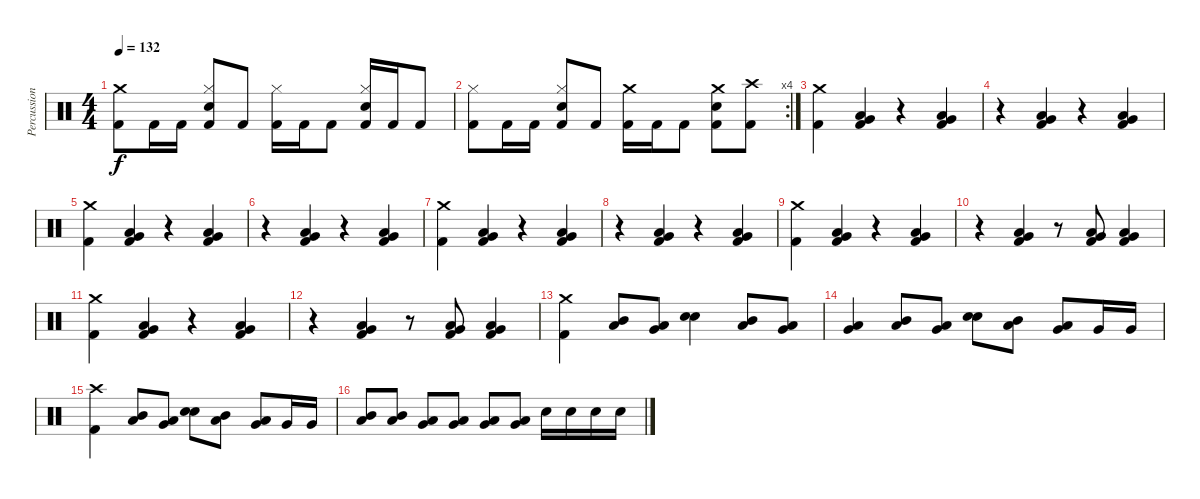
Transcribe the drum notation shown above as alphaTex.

\track ("Percussion" "Percussion") {instrument percussion}
\staff {score}
\articulation defaults
\ts (4 4)
\tempo 132
\clef neutral
\ks c
("Kick (hit) 2" "Crash medium (hit)").8{dy f} "Kick (hit) 2".16 "Kick (hit) 2".16 ("Hi-Hat (closed)" "Kick (hit) 2" "Snare (hit) 2").8 "Kick (hit) 2".8 ("Kick (hit) 2" "Hi-Hat (closed)").16 "Kick (hit) 2".16 "Kick (hit) 2".8 ("Kick (hit) 2" "Hi-Hat (closed)" "Snare (hit) 2").16 "Kick (hit) 2".16 "Kick (hit) 2".8 |
\rc 4
("Kick (hit) 2" "Hi-Hat (closed)").8 "Kick (hit) 2".16 "Kick (hit) 2".16 ("Hi-Hat (closed)" "Kick (hit) 2" "Snare (hit) 2").8 "Kick (hit) 2".8 ("Kick (hit) 2" "Crash medium (hit)").16 "Kick (hit) 2".16 "Kick (hit) 2".8 ("Kick (hit) 2" "Crash medium (hit)" "Snare (hit) 2").8 ("Crash high (hit)" "Kick (hit) 2").8 |
("Kick (hit) 2" "Crash medium (hit)").4 ("Kick (hit) 2" "Low Tom (hit)" "Very Low Tom (hit)").4 r.4 ("Kick (hit) 2" "Low Tom (hit)" "Very Low Tom (hit)").4 |
r.4 ("Kick (hit) 2" "Low Tom (hit)" "Very Low Tom (hit)").4 r.4 ("Kick (hit) 2" "Low Tom (hit)" "Very Low Tom (hit)").4 |
("Kick (hit) 2" "Crash medium (hit)").4 ("Kick (hit) 2" "Low Tom (hit)" "Very Low Tom (hit)").4 r.4 ("Kick (hit) 2" "Low Tom (hit)" "Very Low Tom (hit)").4 |
r.4 ("Kick (hit) 2" "Low Tom (hit)" "Very Low Tom (hit)").4 r.4 ("Kick (hit) 2" "Low Tom (hit)" "Very Low Tom (hit)").4 |
("Kick (hit) 2" "Crash medium (hit)").4 ("Kick (hit) 2" "Low Tom (hit)" "Very Low Tom (hit)").4 r.4 ("Kick (hit) 2" "Low Tom (hit)" "Very Low Tom (hit)").4 |
r.4 ("Kick (hit) 2" "Low Tom (hit)" "Very Low Tom (hit)").4 r.4 ("Kick (hit) 2" "Low Tom (hit)" "Very Low Tom (hit)").4 |
("Kick (hit) 2" "Crash medium (hit)").4 ("Kick (hit) 2" "Low Tom (hit)" "Very Low Tom (hit)").4 r.4 ("Kick (hit) 2" "Low Tom (hit)" "Very Low Tom (hit)").4 |
r.4 ("Kick (hit) 2" "Low Tom (hit)" "Very Low Tom (hit)").4 r.8 ("Kick (hit) 2" "Low Tom (hit)" "Very Low Tom (hit)").8 ("Kick (hit) 2" "Low Tom (hit)" "Very Low Tom (hit)").4 |
("Kick (hit) 2" "Crash medium (hit)").4 ("Kick (hit) 2" "Low Tom (hit)" "Very Low Tom (hit)").4 r.4 ("Kick (hit) 2" "Low Tom (hit)" "Very Low Tom (hit)").4 |
r.4 ("Kick (hit) 2" "Low Tom (hit)" "Very Low Tom (hit)").4 r.8 ("Kick (hit) 2" "Low Tom (hit)" "Very Low Tom (hit)").8 ("Kick (hit) 2" "Low Tom (hit)" "Very Low Tom (hit)").4 |
("Kick (hit) 2" "Crash medium (hit)").4 ("Mid Tom (hit)" "Low Tom (hit)").8 ("Very Low Tom (hit)" "Low Tom (hit)").8 ("Snare (hit) 2" "Snare (hit) 2").4 ("Mid Tom (hit)" "Low Tom (hit)").8 ("Very Low Tom (hit)" "Low Tom (hit)").8 |
("Low Floor Tom (hit)" "Very Low Tom (hit)").4 ("Mid Tom (hit)" "Low Tom (hit)").8 ("Very Low Tom (hit)" "Low Tom (hit)").8 ("Snare (hit) 2" "Snare (hit) 2").8 ("Low Tom (hit)" "Mid Tom (hit)").8 ("Very Low Tom (hit)" "Low Tom (hit)").8 "Very Low Tom (hit)".16 "Very Low Tom (hit)".16 |
("Kick (hit) 2" "Crash high (hit)").4 ("Mid Tom (hit)" "Low Tom (hit)").8 ("Very Low Tom (hit)" "Low Tom (hit)").8 ("Snare (hit) 2" "Snare (hit) 2").8 ("Low Tom (hit)" "Mid Tom (hit)").8 ("Very Low Tom (hit)" "Low Tom (hit)").8 "Very Low Tom (hit)".16 "Very Low Tom (hit)".16 |
("Mid Tom (hit)" "Low Tom (hit)").8 ("Mid Tom (hit)" "Low Tom (hit)").8 ("Very Low Tom (hit)" "Low Tom (hit)").8 ("Very Low Tom (hit)" "Low Tom (hit)").8 ("Very Low Tom (hit)" "Low Floor Tom (hit)").8 ("Very Low Tom (hit)" "Low Floor Tom (hit)").8 "Snare (hit) 2".16 "Snare (hit) 2".16 "Snare (hit) 2".16 "Snare (hit) 2".16
